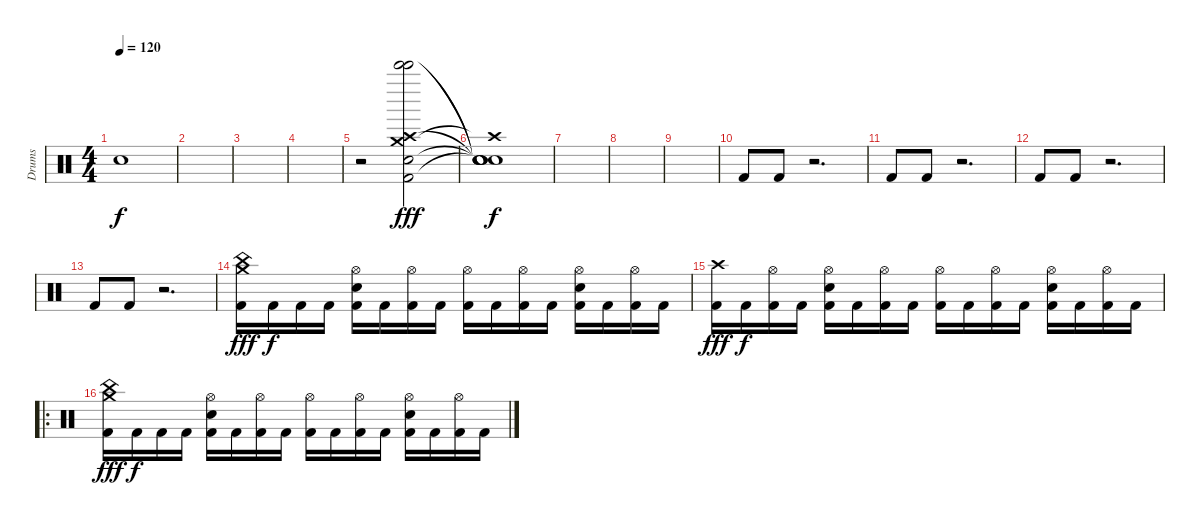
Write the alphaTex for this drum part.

\track ("Drums" "Drums") {instrument percussion}
\staff {score}
\articulation defaults
\ts (4 4)
\tempo 120
\clef neutral
\ks c "Snare (hit)"{t}.1{dy f}
|
|
|
|
r.2 ("Bell Tree (hit)" "Bell Tree (hit)" "Crash medium (hit)" "Crash high (hit)" "Electric Snare (hit)" "Kick (hit) 2").2{dy fff} |
("Snare (hit)"{t} "Snare (hit)"{t} "Crash high (hit)"{t} "Snare (hit)"{t} "Snare (hit)"{t} "Snare (hit)"{t}).1{dy f} |
|
|
|
"Kick (hit) 2".8 "Kick (hit) 2".8 r.2{d} |
"Kick (hit) 2".8 "Kick (hit) 2".8 r.2{d} |
"Kick (hit) 2".8 "Kick (hit) 2".8 r.2{d} |
"Kick (hit) 2".8 "Kick (hit) 2".8 r.2{d} |
("Crash medium (hit)" "China (hit)" "Kick (hit) 2").16{dy fff} "Kick (hit) 2".16{dy f} "Kick (hit) 2".16 "Kick (hit) 2".16 ("Hi-Hat (open)" "Electric Snare (hit)" "Kick (hit) 2").16 "Kick (hit) 2".16 ("Hi-Hat (open)" "Kick (hit) 2").16 "Kick (hit) 2".16 ("Hi-Hat (open)" "Kick (hit) 2").16 "Kick (hit) 2".16 ("Hi-Hat (open)" "Kick (hit) 2").16 "Kick (hit) 2".16 ("Hi-Hat (open)" "Electric Snare (hit)" "Kick (hit) 2").16 "Kick (hit) 2".16 ("Hi-Hat (open)" "Kick (hit) 2").16 "Kick (hit) 2".16 |
("Crash high (hit)" "Kick (hit) 2").16{dy fff} "Kick (hit) 2".16{dy f} ("Hi-Hat (open)" "Kick (hit) 2").16 "Kick (hit) 2".16 ("Hi-Hat (open)" "Electric Snare (hit)" "Kick (hit) 2").16 "Kick (hit) 2".16 ("Hi-Hat (open)" "Kick (hit) 2").16 "Kick (hit) 2".16 ("Hi-Hat (open)" "Kick (hit) 2").16 "Kick (hit) 2".16 ("Hi-Hat (open)" "Kick (hit) 2").16 "Kick (hit) 2".16 ("Hi-Hat (open)" "Electric Snare (hit)" "Kick (hit) 2").16 "Kick (hit) 2".16 ("Hi-Hat (open)" "Kick (hit) 2").16 "Kick (hit) 2".16 |
\ro
("Crash medium (hit)" "China (hit)" "Kick (hit) 2").16{dy fff} "Kick (hit) 2".16{dy f} "Kick (hit) 2".16 "Kick (hit) 2".16 ("Hi-Hat (open)" "Electric Snare (hit)" "Kick (hit) 2").16 "Kick (hit) 2".16 ("Hi-Hat (open)" "Kick (hit) 2").16 "Kick (hit) 2".16 ("Hi-Hat (open)" "Kick (hit) 2").16 "Kick (hit) 2".16 ("Hi-Hat (open)" "Kick (hit) 2").16 "Kick (hit) 2".16 ("Hi-Hat (open)" "Electric Snare (hit)" "Kick (hit) 2").16 "Kick (hit) 2".16 ("Hi-Hat (open)" "Kick (hit) 2").16 "Kick (hit) 2".16
